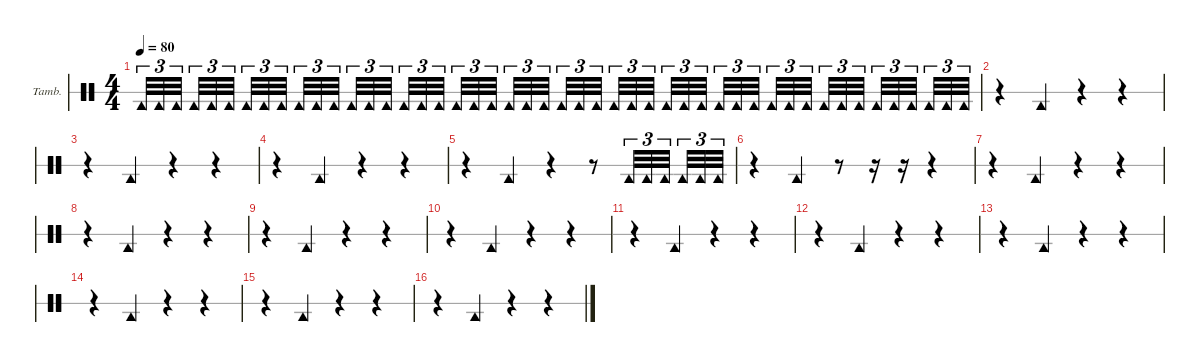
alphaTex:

\hideDynamics
\bracketExtendMode nobrackets
\firstSystemTrackNameOrientation horizontal
\otherSystemsTrackNameOrientation horizontal
\track ("Tambourine" "Tamb.") {instrument percussion}
\staff {score 1}
\articulation defaults
\ts (4 4)
\tempo 80
\clef neutral
\ks c "Tambourine (hit)".32{tu (3 2) dy f} "Tambourine (hit)".32{tu (3 2) dy mf} "Tambourine (hit)".32{tu (3 2) dy mp} "Tambourine (hit)".32{tu (3 2)} "Tambourine (hit)".32{tu (3 2)} "Tambourine (hit)".32{tu (3 2)} "Tambourine (hit)".32{tu (3 2)} "Tambourine (hit)".32{tu (3 2)} "Tambourine (hit)".32{tu (3 2)} "Tambourine (hit)".32{tu (3 2)} "Tambourine (hit)".32{tu (3 2)} "Tambourine (hit)".32{tu (3 2)} "Tambourine (hit)".32{tu (3 2) dy mf} "Tambourine (hit)".32{tu (3 2)} "Tambourine (hit)".32{tu (3 2) dy mp} "Tambourine (hit)".32{tu (3 2)} "Tambourine (hit)".32{tu (3 2)} "Tambourine (hit)".32{tu (3 2)} "Tambourine (hit)".32{tu (3 2)} "Tambourine (hit)".32{tu (3 2)} "Tambourine (hit)".32{tu (3 2)} "Tambourine (hit)".32{tu (3 2)} "Tambourine (hit)".32{tu (3 2)} "Tambourine (hit)".32{tu (3 2)} "Tambourine (hit)".32{tu (3 2) dy mf} "Tambourine (hit)".32{tu (3 2) dy mp} "Tambourine (hit)".32{tu (3 2)} "Tambourine (hit)".32{tu (3 2)} "Tambourine (hit)".32{tu (3 2)} "Tambourine (hit)".32{tu (3 2)} "Tambourine (hit)".32{tu (3 2) dy f} "Tambourine (hit)".32{tu (3 2) dy mp} "Tambourine (hit)".32{tu (3 2)} "Tambourine (hit)".32{tu (3 2)} "Tambourine (hit)".32{tu (3 2)} "Tambourine (hit)".32{tu (3 2)} "Tambourine (hit)".32{tu (3 2) dy f} "Tambourine (hit)".32{tu (3 2) dy mf} "Tambourine (hit)".32{tu (3 2)} "Tambourine (hit)".32{tu (3 2)} "Tambourine (hit)".32{tu (3 2)} "Tambourine (hit)".32{tu (3 2)} "Tambourine (hit)".32{tu (3 2)} "Tambourine (hit)".32{tu (3 2)} "Tambourine (hit)".32{tu (3 2)} "Tambourine (hit)".32{tu (3 2)} "Tambourine (hit)".32{tu (3 2)} "Tambourine (hit)".32{tu (3 2)}
|
r.4 "Tambourine (hit)".4{dy f} r.4 r.4 |
r.4 "Tambourine (hit)".4 r.4 r.4 |
r.4 "Tambourine (hit)".4 r.4 r.4 |
r.4 "Tambourine (hit)".4 r.4 r.8 "Tambourine (hit)".32{tu (3 2) dy pp} "Tambourine (hit)".32{tu (3 2)} "Tambourine (hit)".32{tu (3 2)} "Tambourine (hit)".32{tu (3 2) dy p} "Tambourine (hit)".32{tu (3 2)} "Tambourine (hit)".32{tu (3 2)} |
r.4 "Tambourine (hit)".4{dy f} r.8 r.16 r.16 r.4 |
r.4 "Tambourine (hit)".4 r.4 r.4 |
r.4 "Tambourine (hit)".4 r.4 r.4 |
r.4 "Tambourine (hit)".4 r.4 r.4 |
r.4 "Tambourine (hit)".4 r.4 r.4 |
r.4 "Tambourine (hit)".4 r.4 r.4 |
r.4 "Tambourine (hit)".4 r.4 r.4 |
r.4 "Tambourine (hit)".4 r.4 r.4 |
r.4 "Tambourine (hit)".4 r.4 r.4 |
r.4 "Tambourine (hit)".4 r.4 r.4 |
r.4 "Tambourine (hit)".4 r.4 r.4
